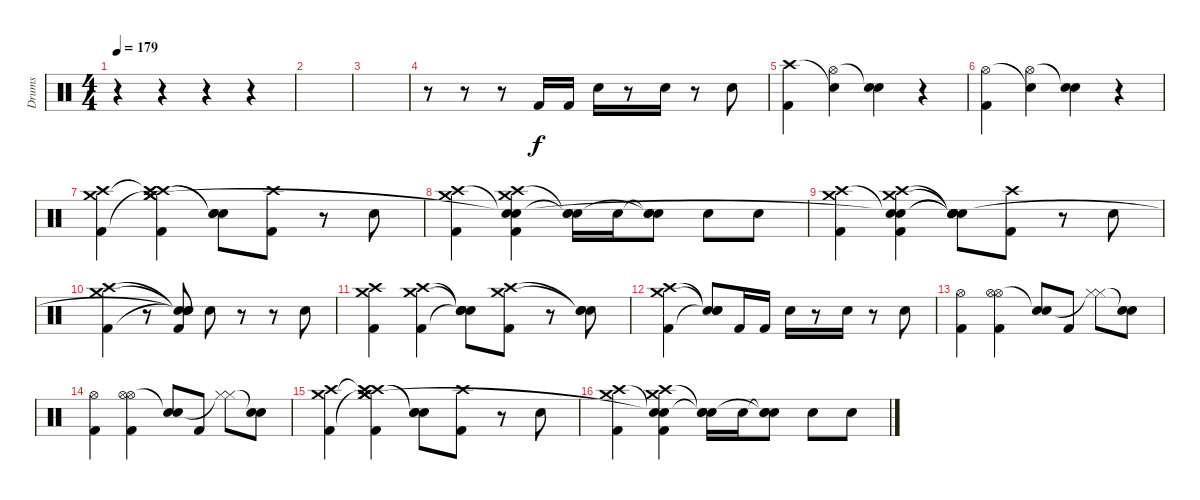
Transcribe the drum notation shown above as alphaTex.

\track ("Drums" "Drums") {instrument percussion}
\staff {score}
\articulation defaults
\ts (4 4)
\tempo 179
\clef neutral
\ks c
r.4{dy f} r.4 r.4 r.4 |
|
|
r.8 r.8 r.8 "Kick (hit) 2".16 "Kick (hit) 2".16 "Electric Snare (hit)".16 r.8 "Electric Snare (hit)".16 r.8 "Electric Snare (hit)".8 |
("Crash high (hit)" "Kick (hit) 2").4 ("Snare (hit)"{t} "Hi-Hat (open)").4 ("Electric Snare (hit)" "Snare (hit)"{t}).4 r.4 |
("Hi-Hat (open)" "Kick (hit) 2").4 ("Snare (hit)"{t} "Hi-Hat (open)").4 ("Electric Snare (hit)" "Snare (hit)"{t}).4 r.4 |
("Crash high (hit)" "Crash medium (hit)" "Kick (hit) 2").4 ("Crash high (hit)" "Crash high (hit)"{t} "Crash medium (hit)"{t} "Crash medium (hit)" "Kick (hit) 2").4 ("Snare (hit)"{t} "Snare (hit)"{t} "Electric Snare (hit)").8 ("Crash high (hit)" "Kick (hit) 2").8 r.8 "Electric Snare (hit)".8 |
("Crash high (hit)" "Crash medium (hit)" "Kick (hit) 2").4 ("Snare (hit)"{t} "Crash high (hit)" "Crash medium (hit)" "Snare (hit)"{t} "Kick (hit) 2").4 ("Snare (hit)"{t} "Snare (hit)"{t} "Electric Snare (hit)").16 "Electric Snare (hit)".16 ("Snare (hit)"{t} "Snare (hit)"{t} "Electric Snare (hit)").8 "Electric Snare (hit)".8 "Electric Snare (hit)".8 |
("Crash high (hit)" "Crash medium (hit)" "Kick (hit) 2").4 ("Snare (hit)"{t} "Crash high (hit)" "Crash medium (hit)" "Snare (hit)"{t} "Kick (hit) 2").4 ("Snare (hit)"{t} "Snare (hit)"{t} "Snare (hit)"{t} "Snare (hit)"{t} "Electric Snare (hit)").8 ("Crash high (hit)" "Kick (hit) 2").8 r.8 "Electric Snare (hit)".8 |
("Crash medium (hit)" "Crash high (hit)" "Kick (hit) 2").4 r.8 ("Snare (hit)"{t} "Snare (hit)"{t} "Snare (hit)"{t} "Snare (hit)"{t} "Kick (hit) 2").8 "Electric Snare (hit)".8 r.8 r.8 "Electric Snare (hit)".8 |
("Crash medium (hit)" "Crash high (hit)" "Kick (hit) 2").4 ("Crash medium (hit)" "Crash high (hit)" "Kick (hit) 2").4 ("Snare (hit)"{t} "Snare (hit)"{t} "Snare (hit)"{t} "Electric Snare (hit)").8 ("Crash medium (hit)" "Crash high (hit)" "Kick (hit) 2").8 r.8 ("Snare (hit)"{t} "Snare (hit)"{t} "Electric Snare (hit)").8 |
("Crash high (hit)" "Crash medium (hit)" "Kick (hit) 2").4 ("Snare (hit)"{t} "Snare (hit)"{t} "Snare (hit)"{t}).8 "Kick (hit) 2".16 "Kick (hit) 2".16 "Electric Snare (hit)".16 r.8 "Electric Snare (hit)".16 r.8 "Electric Snare (hit)".8 |
("Hi-Hat (open)" "Kick (hit) 2").4 ("Hi-Hat (open)" "Hi-Hat (open)" "Kick (hit) 2").4 ("Electric Snare (hit)" "Snare (hit)"{t}).8 "Kick (hit) 2".8 ("Hi-Hat (closed)" "Hi-Hat (closed)"{t}).8 ("Snare (hit)"{t} "Electric Snare (hit)").8 |
("Hi-Hat (open)" "Kick (hit) 2").4 ("Hi-Hat (open)" "Hi-Hat (open)" "Kick (hit) 2").4 ("Electric Snare (hit)" "Snare (hit)"{t}).8 "Kick (hit) 2".8 ("Hi-Hat (closed)" "Hi-Hat (closed)"{t}).8 ("Snare (hit)"{t} "Electric Snare (hit)").8 |
("Crash high (hit)" "Crash medium (hit)" "Kick (hit) 2").4 ("Crash high (hit)" "Crash high (hit)"{t} "Crash medium (hit)"{t} "Crash medium (hit)" "Kick (hit) 2").4 ("Snare (hit)"{t} "Snare (hit)"{t} "Electric Snare (hit)").8 ("Crash high (hit)" "Kick (hit) 2").8 r.8 "Electric Snare (hit)".8 |
("Crash high (hit)" "Crash medium (hit)" "Kick (hit) 2").4 ("Snare (hit)"{t} "Crash high (hit)" "Crash medium (hit)" "Snare (hit)"{t} "Kick (hit) 2").4 ("Snare (hit)"{t} "Snare (hit)"{t} "Electric Snare (hit)").16 "Electric Snare (hit)".16 ("Snare (hit)"{t} "Snare (hit)"{t} "Electric Snare (hit)").8 "Electric Snare (hit)".8 "Electric Snare (hit)".8
